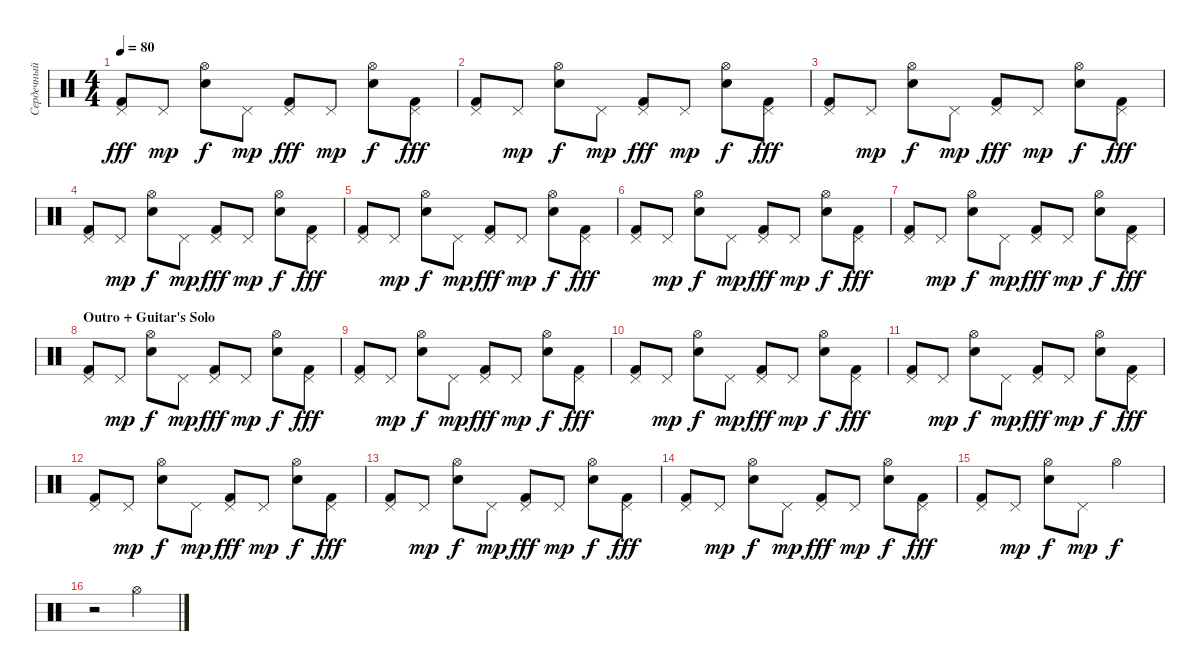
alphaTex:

\track ("Сердечный (Ударные)" "Сердечный ") {instrument percussion}
\staff {score}
\articulation defaults
\ts (4 4)
\tempo 80
\clef neutral
\ks c
("Pedal Hi-Hat (hit)" "Kick (hit) 2").8{dy fff} "Pedal Hi-Hat (hit)".8{dy mp} ("Hi-Hat (open)" "Electric Snare (hit)").8{dy f} "Pedal Hi-Hat (hit)".8{dy mp} ("Pedal Hi-Hat (hit)" "Kick (hit) 2").8{dy fff} "Pedal Hi-Hat (hit)".8{dy mp} ("Hi-Hat (open)" "Electric Snare (hit)").8{dy f} ("Pedal Hi-Hat (hit)" "Kick (hit) 2").8{dy fff} |
("Pedal Hi-Hat (hit)" "Kick (hit) 2").8 "Pedal Hi-Hat (hit)".8{dy mp} ("Hi-Hat (open)" "Electric Snare (hit)").8{dy f} "Pedal Hi-Hat (hit)".8{dy mp} ("Pedal Hi-Hat (hit)" "Kick (hit) 2").8{dy fff} "Pedal Hi-Hat (hit)".8{dy mp} ("Hi-Hat (open)" "Electric Snare (hit)").8{dy f} ("Pedal Hi-Hat (hit)" "Kick (hit) 2").8{dy fff} |
("Pedal Hi-Hat (hit)" "Kick (hit) 2").8 "Pedal Hi-Hat (hit)".8{dy mp} ("Hi-Hat (open)" "Electric Snare (hit)").8{dy f} "Pedal Hi-Hat (hit)".8{dy mp} ("Pedal Hi-Hat (hit)" "Kick (hit) 2").8{dy fff} "Pedal Hi-Hat (hit)".8{dy mp} ("Hi-Hat (open)" "Electric Snare (hit)").8{dy f} ("Pedal Hi-Hat (hit)" "Kick (hit) 2").8{dy fff} |
("Pedal Hi-Hat (hit)" "Kick (hit) 2").8 "Pedal Hi-Hat (hit)".8{dy mp} ("Hi-Hat (open)" "Electric Snare (hit)").8{dy f} "Pedal Hi-Hat (hit)".8{dy mp} ("Pedal Hi-Hat (hit)" "Kick (hit) 2").8{dy fff} "Pedal Hi-Hat (hit)".8{dy mp} ("Hi-Hat (open)" "Electric Snare (hit)").8{dy f} ("Pedal Hi-Hat (hit)" "Kick (hit) 2").8{dy fff} |
("Pedal Hi-Hat (hit)" "Kick (hit) 2").8 "Pedal Hi-Hat (hit)".8{dy mp} ("Hi-Hat (open)" "Electric Snare (hit)").8{dy f} "Pedal Hi-Hat (hit)".8{dy mp} ("Pedal Hi-Hat (hit)" "Kick (hit) 2").8{dy fff} "Pedal Hi-Hat (hit)".8{dy mp} ("Hi-Hat (open)" "Electric Snare (hit)").8{dy f} ("Pedal Hi-Hat (hit)" "Kick (hit) 2").8{dy fff} |
("Pedal Hi-Hat (hit)" "Kick (hit) 2").8 "Pedal Hi-Hat (hit)".8{dy mp} ("Hi-Hat (open)" "Electric Snare (hit)").8{dy f} "Pedal Hi-Hat (hit)".8{dy mp} ("Pedal Hi-Hat (hit)" "Kick (hit) 2").8{dy fff} "Pedal Hi-Hat (hit)".8{dy mp} ("Hi-Hat (open)" "Electric Snare (hit)").8{dy f} ("Pedal Hi-Hat (hit)" "Kick (hit) 2").8{dy fff} |
("Pedal Hi-Hat (hit)" "Kick (hit) 2").8 "Pedal Hi-Hat (hit)".8{dy mp} ("Hi-Hat (open)" "Electric Snare (hit)").8{dy f} "Pedal Hi-Hat (hit)".8{dy mp} ("Pedal Hi-Hat (hit)" "Kick (hit) 2").8{dy fff} "Pedal Hi-Hat (hit)".8{dy mp} ("Hi-Hat (open)" "Electric Snare (hit)").8{dy f} ("Pedal Hi-Hat (hit)" "Kick (hit) 2").8{dy fff} |
\section ("" "Outro + Guitar's Solo")
("Pedal Hi-Hat (hit)" "Kick (hit) 2").8 "Pedal Hi-Hat (hit)".8{dy mp} ("Hi-Hat (open)" "Electric Snare (hit)").8{dy f} "Pedal Hi-Hat (hit)".8{dy mp} ("Pedal Hi-Hat (hit)" "Kick (hit) 2").8{dy fff} "Pedal Hi-Hat (hit)".8{dy mp} ("Hi-Hat (open)" "Electric Snare (hit)").8{dy f} ("Pedal Hi-Hat (hit)" "Kick (hit) 2").8{dy fff} |
("Pedal Hi-Hat (hit)" "Kick (hit) 2").8 "Pedal Hi-Hat (hit)".8{dy mp} ("Hi-Hat (open)" "Electric Snare (hit)").8{dy f} "Pedal Hi-Hat (hit)".8{dy mp} ("Pedal Hi-Hat (hit)" "Kick (hit) 2").8{dy fff} "Pedal Hi-Hat (hit)".8{dy mp} ("Hi-Hat (open)" "Electric Snare (hit)").8{dy f} ("Pedal Hi-Hat (hit)" "Kick (hit) 2").8{dy fff} |
("Pedal Hi-Hat (hit)" "Kick (hit) 2").8 "Pedal Hi-Hat (hit)".8{dy mp} ("Hi-Hat (open)" "Electric Snare (hit)").8{dy f} "Pedal Hi-Hat (hit)".8{dy mp} ("Pedal Hi-Hat (hit)" "Kick (hit) 2").8{dy fff} "Pedal Hi-Hat (hit)".8{dy mp} ("Hi-Hat (open)" "Electric Snare (hit)").8{dy f} ("Pedal Hi-Hat (hit)" "Kick (hit) 2").8{dy fff} |
("Pedal Hi-Hat (hit)" "Kick (hit) 2").8 "Pedal Hi-Hat (hit)".8{dy mp} ("Hi-Hat (open)" "Electric Snare (hit)").8{dy f} "Pedal Hi-Hat (hit)".8{dy mp} ("Pedal Hi-Hat (hit)" "Kick (hit) 2").8{dy fff} "Pedal Hi-Hat (hit)".8{dy mp} ("Hi-Hat (open)" "Electric Snare (hit)").8{dy f} ("Pedal Hi-Hat (hit)" "Kick (hit) 2").8{dy fff} |
("Pedal Hi-Hat (hit)" "Kick (hit) 2").8 "Pedal Hi-Hat (hit)".8{dy mp} ("Hi-Hat (open)" "Electric Snare (hit)").8{dy f} "Pedal Hi-Hat (hit)".8{dy mp} ("Pedal Hi-Hat (hit)" "Kick (hit) 2").8{dy fff} "Pedal Hi-Hat (hit)".8{dy mp} ("Hi-Hat (open)" "Electric Snare (hit)").8{dy f} ("Pedal Hi-Hat (hit)" "Kick (hit) 2").8{dy fff} |
("Pedal Hi-Hat (hit)" "Kick (hit) 2").8 "Pedal Hi-Hat (hit)".8{dy mp} ("Hi-Hat (open)" "Electric Snare (hit)").8{dy f} "Pedal Hi-Hat (hit)".8{dy mp} ("Pedal Hi-Hat (hit)" "Kick (hit) 2").8{dy fff} "Pedal Hi-Hat (hit)".8{dy mp} ("Hi-Hat (open)" "Electric Snare (hit)").8{dy f} ("Pedal Hi-Hat (hit)" "Kick (hit) 2").8{dy fff} |
("Pedal Hi-Hat (hit)" "Kick (hit) 2").8 "Pedal Hi-Hat (hit)".8{dy mp} ("Hi-Hat (open)" "Electric Snare (hit)").8{dy f} "Pedal Hi-Hat (hit)".8{dy mp} ("Pedal Hi-Hat (hit)" "Kick (hit) 2").8{dy fff} "Pedal Hi-Hat (hit)".8{dy mp} ("Hi-Hat (open)" "Electric Snare (hit)").8{dy f} ("Pedal Hi-Hat (hit)" "Kick (hit) 2").8{dy fff} |
("Pedal Hi-Hat (hit)" "Kick (hit) 2").8 "Pedal Hi-Hat (hit)".8{dy mp} ("Hi-Hat (open)" "Electric Snare (hit)").8{dy f} "Pedal Hi-Hat (hit)".8{dy mp} "Hi-Hat (open)".2{dy f} |
r.2 "Hi-Hat (open)".2
